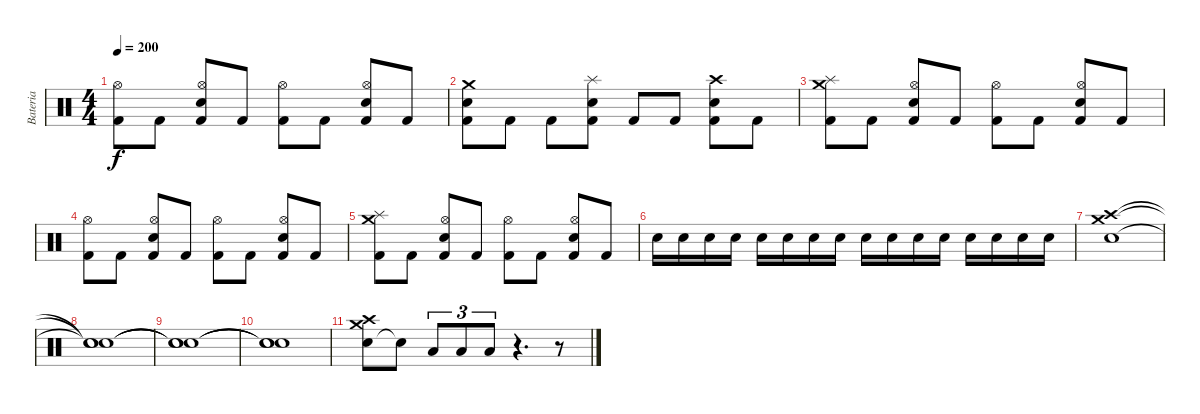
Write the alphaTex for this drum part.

\track ("Bateria " "Bateria ") {instrument percussion}
\staff {score}
\articulation defaults
\ts (4 4)
\tempo 200
\clef neutral
\ks c
("Kick (hit) 2" "Hi-Hat (open)").8{dy f} "Kick (hit) 2".8 ("Kick (hit) 2" "Electric Snare (hit)" "Hi-Hat (open)").8 "Kick (hit) 2".8 ("Kick (hit) 2" "Hi-Hat (open)").8 "Kick (hit) 2".8 ("Kick (hit) 2" "Electric Snare (hit)" "Hi-Hat (open)").8 "Kick (hit) 2".8 |
("Kick (hit) 2" "Electric Snare (hit)" "Crash medium (hit)").8 "Kick (hit) 2".8 "Kick (hit) 2".8 ("Kick (hit) 2" "Electric Snare (hit)" "Splash (hit)").8 "Kick (hit) 2".8 "Kick (hit) 2".8 ("Kick (hit) 2" "Electric Snare (hit)" "Crash high (hit)").8 "Kick (hit) 2".8 |
("Kick (hit) 2" "Splash (hit)" "Crash medium (hit)").8 "Kick (hit) 2".8 ("Kick (hit) 2" "Electric Snare (hit)" "Hi-Hat (open)").8 "Kick (hit) 2".8 ("Kick (hit) 2" "Hi-Hat (open)").8 "Kick (hit) 2".8 ("Kick (hit) 2" "Electric Snare (hit)" "Hi-Hat (open)").8 "Kick (hit) 2".8 |
("Kick (hit) 2" "Hi-Hat (open)").8 "Kick (hit) 2".8 ("Kick (hit) 2" "Electric Snare (hit)" "Hi-Hat (open)").8 "Kick (hit) 2".8 ("Kick (hit) 2" "Hi-Hat (open)").8 "Kick (hit) 2".8 ("Kick (hit) 2" "Electric Snare (hit)" "Hi-Hat (open)").8 "Kick (hit) 2".8 |
("Kick (hit) 2" "Splash (hit)" "Crash medium (hit)").8 "Kick (hit) 2".8 ("Kick (hit) 2" "Electric Snare (hit)" "Hi-Hat (open)").8 "Kick (hit) 2".8 ("Kick (hit) 2" "Hi-Hat (open)").8 "Kick (hit) 2".8 ("Kick (hit) 2" "Electric Snare (hit)" "Hi-Hat (open)").8 "Kick (hit) 2".8 |
"Electric Snare (hit)".16 "Electric Snare (hit)".16 "Electric Snare (hit)".16 "Electric Snare (hit)".16 "Electric Snare (hit)".16 "Electric Snare (hit)".16 "Electric Snare (hit)".16 "Electric Snare (hit)".16 "Electric Snare (hit)".16 "Electric Snare (hit)".16 "Electric Snare (hit)".16 "Electric Snare (hit)".16 "Electric Snare (hit)".16 "Electric Snare (hit)".16 "Electric Snare (hit)".16 "Electric Snare (hit)".16 |
("Electric Snare (hit)" "Crash high (hit)" "Crash medium (hit)").1 |
("Snare (hit)"{t} "Snare (hit)"{t} "Snare (hit)"{t}).1 |
("Snare (hit)"{t} "Snare (hit)"{t} "Snare (hit)"{t}).1 |
("Snare (hit)"{t} "Snare (hit)"{t} "Snare (hit)"{t}).1 |
("Electric Snare (hit)" "Crash high (hit)" "Crash medium (hit)").8 "Snare (hit)"{t}.8 "Low Floor Tom (hit)".8{tu (3 2)} "Low Floor Tom (hit)".8{tu (3 2)} "Low Floor Tom (hit)".8{tu (3 2)} r.4{d} r.8
